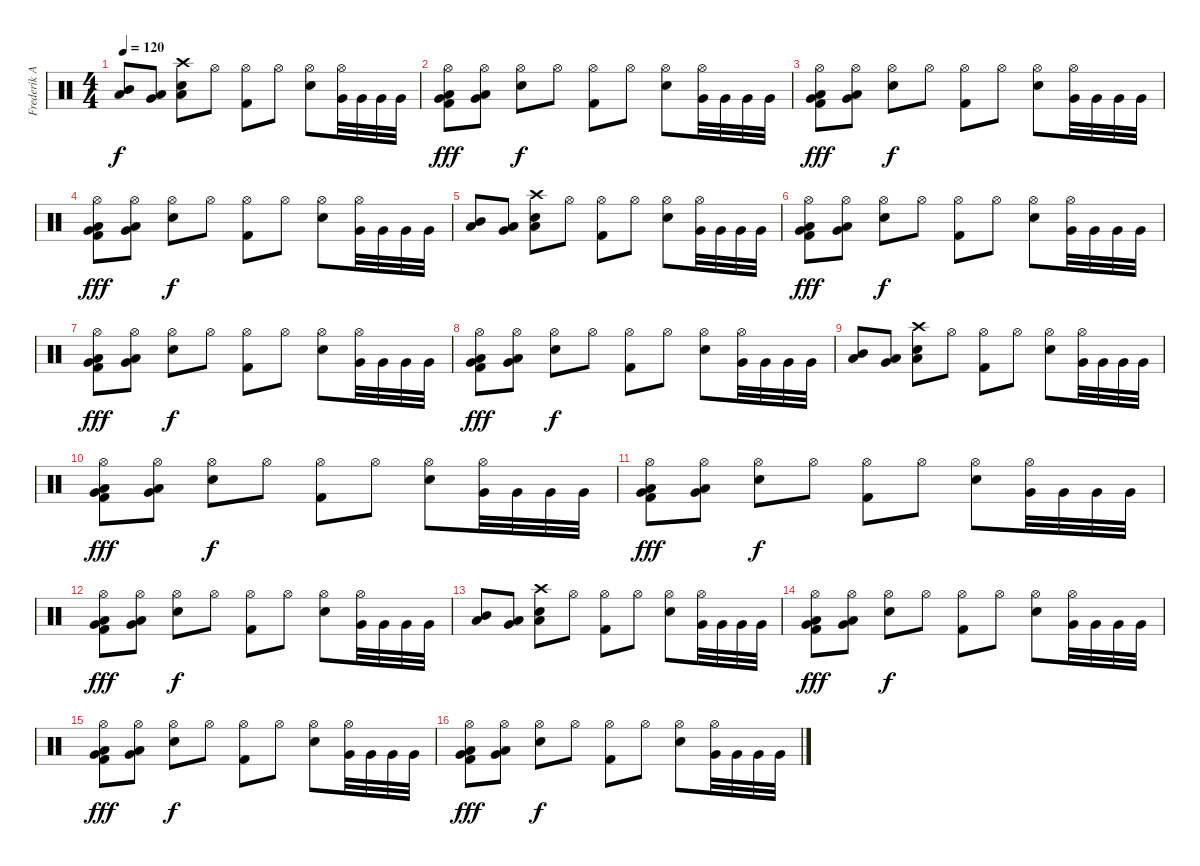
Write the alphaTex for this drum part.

\track ("Frederik Anderson" "Frederik A") {instrument percussion}
\staff {score}
\articulation defaults
\ts (4 4)
\tempo 120
\clef neutral
\ks c
("Mid Tom (hit)" "Low Tom (hit)").8{dy f} ("Low Tom (hit)" "Very Low Tom (hit)").8 ("Crash high (hit)" "Electric Snare (hit)" "Low Floor Tom (hit)").8 "Hi-Hat (open)".8 ("Hi-Hat (open)" "Kick (hit) 2").8 "Hi-Hat (open)".8 ("Hi-Hat (open)" "Electric Snare (hit)").8 ("Hi-Hat (open)" "Very Low Tom (hit)").32 "Very Low Tom (hit)".32 "Very Low Tom (hit)".32 "Very Low Tom (hit)".32 |
("Hi-Hat (open)" "Low Tom (hit)" "Very Low Tom (hit)" "Kick (hit) 2").8{dy fff} ("Hi-Hat (open)" "Very Low Tom (hit)" "Low Floor Tom (hit)").8 ("Hi-Hat (open)" "Electric Snare (hit)").8{dy f} "Hi-Hat (open)".8 ("Hi-Hat (open)" "Kick (hit) 2").8 "Hi-Hat (open)".8 ("Hi-Hat (open)" "Electric Snare (hit)").8 ("Hi-Hat (open)" "Very Low Tom (hit)").32 "Very Low Tom (hit)".32 "Very Low Tom (hit)".32 "Very Low Tom (hit)".32 |
("Hi-Hat (open)" "Low Tom (hit)" "Very Low Tom (hit)" "Kick (hit) 2").8{dy fff} ("Hi-Hat (open)" "Very Low Tom (hit)" "Low Floor Tom (hit)").8 ("Hi-Hat (open)" "Electric Snare (hit)").8{dy f} "Hi-Hat (open)".8 ("Hi-Hat (open)" "Kick (hit) 2").8 "Hi-Hat (open)".8 ("Hi-Hat (open)" "Electric Snare (hit)").8 ("Hi-Hat (open)" "Very Low Tom (hit)").32 "Very Low Tom (hit)".32 "Very Low Tom (hit)".32 "Very Low Tom (hit)".32 |
("Hi-Hat (open)" "Low Tom (hit)" "Very Low Tom (hit)" "Kick (hit) 2").8{dy fff} ("Hi-Hat (open)" "Very Low Tom (hit)" "Low Floor Tom (hit)").8 ("Hi-Hat (open)" "Electric Snare (hit)").8{dy f} "Hi-Hat (open)".8 ("Hi-Hat (open)" "Kick (hit) 2").8 "Hi-Hat (open)".8 ("Hi-Hat (open)" "Electric Snare (hit)").8 ("Hi-Hat (open)" "Very Low Tom (hit)").32 "Very Low Tom (hit)".32 "Very Low Tom (hit)".32 "Very Low Tom (hit)".32 |
("Mid Tom (hit)" "Low Tom (hit)").8{volume 11} ("Low Tom (hit)" "Very Low Tom (hit)").8 ("Crash high (hit)" "Electric Snare (hit)" "Low Floor Tom (hit)").8 "Hi-Hat (open)".8 ("Hi-Hat (open)" "Kick (hit) 2").8 "Hi-Hat (open)".8 ("Hi-Hat (open)" "Electric Snare (hit)").8 ("Hi-Hat (open)" "Very Low Tom (hit)").32 "Very Low Tom (hit)".32 "Very Low Tom (hit)".32 "Very Low Tom (hit)".32 |
("Hi-Hat (open)" "Low Tom (hit)" "Very Low Tom (hit)" "Kick (hit) 2").8{dy fff} ("Hi-Hat (open)" "Very Low Tom (hit)" "Low Floor Tom (hit)").8 ("Hi-Hat (open)" "Electric Snare (hit)").8{dy f} "Hi-Hat (open)".8 ("Hi-Hat (open)" "Kick (hit) 2").8 "Hi-Hat (open)".8 ("Hi-Hat (open)" "Electric Snare (hit)").8 ("Hi-Hat (open)" "Very Low Tom (hit)").32 "Very Low Tom (hit)".32 "Very Low Tom (hit)".32 "Very Low Tom (hit)".32 |
("Hi-Hat (open)" "Low Tom (hit)" "Very Low Tom (hit)" "Kick (hit) 2").8{dy fff} ("Hi-Hat (open)" "Very Low Tom (hit)" "Low Floor Tom (hit)").8 ("Hi-Hat (open)" "Electric Snare (hit)").8{dy f} "Hi-Hat (open)".8 ("Hi-Hat (open)" "Kick (hit) 2").8 "Hi-Hat (open)".8 ("Hi-Hat (open)" "Electric Snare (hit)").8 ("Hi-Hat (open)" "Very Low Tom (hit)").32 "Very Low Tom (hit)".32 "Very Low Tom (hit)".32 "Very Low Tom (hit)".32 |
("Hi-Hat (open)" "Low Tom (hit)" "Very Low Tom (hit)" "Kick (hit) 2").8{dy fff} ("Hi-Hat (open)" "Very Low Tom (hit)" "Low Floor Tom (hit)").8 ("Hi-Hat (open)" "Electric Snare (hit)").8{dy f} "Hi-Hat (open)".8 ("Hi-Hat (open)" "Kick (hit) 2").8 "Hi-Hat (open)".8 ("Hi-Hat (open)" "Electric Snare (hit)").8 ("Hi-Hat (open)" "Very Low Tom (hit)").32 "Very Low Tom (hit)".32 "Very Low Tom (hit)".32 "Very Low Tom (hit)".32 |
("Mid Tom (hit)" "Low Tom (hit)").8{volume 6} ("Low Tom (hit)" "Very Low Tom (hit)").8 ("Crash high (hit)" "Electric Snare (hit)" "Low Floor Tom (hit)").8 "Hi-Hat (open)".8 ("Hi-Hat (open)" "Kick (hit) 2").8 "Hi-Hat (open)".8 ("Hi-Hat (open)" "Electric Snare (hit)").8 ("Hi-Hat (open)" "Very Low Tom (hit)").32 "Very Low Tom (hit)".32 "Very Low Tom (hit)".32 "Very Low Tom (hit)".32 |
("Hi-Hat (open)" "Low Tom (hit)" "Very Low Tom (hit)" "Kick (hit) 2").8{dy fff} ("Hi-Hat (open)" "Very Low Tom (hit)" "Low Floor Tom (hit)").8 ("Hi-Hat (open)" "Electric Snare (hit)").8{dy f} "Hi-Hat (open)".8 ("Hi-Hat (open)" "Kick (hit) 2").8 "Hi-Hat (open)".8 ("Hi-Hat (open)" "Electric Snare (hit)").8 ("Hi-Hat (open)" "Very Low Tom (hit)").32 "Very Low Tom (hit)".32 "Very Low Tom (hit)".32 "Very Low Tom (hit)".32 |
("Hi-Hat (open)" "Low Tom (hit)" "Very Low Tom (hit)" "Kick (hit) 2").8{dy fff} ("Hi-Hat (open)" "Very Low Tom (hit)" "Low Floor Tom (hit)").8 ("Hi-Hat (open)" "Electric Snare (hit)").8{dy f} "Hi-Hat (open)".8 ("Hi-Hat (open)" "Kick (hit) 2").8 "Hi-Hat (open)".8 ("Hi-Hat (open)" "Electric Snare (hit)").8 ("Hi-Hat (open)" "Very Low Tom (hit)").32 "Very Low Tom (hit)".32 "Very Low Tom (hit)".32 "Very Low Tom (hit)".32 |
("Hi-Hat (open)" "Low Tom (hit)" "Very Low Tom (hit)" "Kick (hit) 2").8{dy fff} ("Hi-Hat (open)" "Very Low Tom (hit)" "Low Floor Tom (hit)").8 ("Hi-Hat (open)" "Electric Snare (hit)").8{dy f} "Hi-Hat (open)".8 ("Hi-Hat (open)" "Kick (hit) 2").8 "Hi-Hat (open)".8 ("Hi-Hat (open)" "Electric Snare (hit)").8 ("Hi-Hat (open)" "Very Low Tom (hit)").32 "Very Low Tom (hit)".32 "Very Low Tom (hit)".32 "Very Low Tom (hit)".32 |
("Mid Tom (hit)" "Low Tom (hit)").8{volume 0} ("Low Tom (hit)" "Very Low Tom (hit)").8 ("Crash high (hit)" "Electric Snare (hit)" "Low Floor Tom (hit)").8 "Hi-Hat (open)".8 ("Hi-Hat (open)" "Kick (hit) 2").8 "Hi-Hat (open)".8 ("Hi-Hat (open)" "Electric Snare (hit)").8 ("Hi-Hat (open)" "Very Low Tom (hit)").32 "Very Low Tom (hit)".32 "Very Low Tom (hit)".32 "Very Low Tom (hit)".32 |
("Hi-Hat (open)" "Low Tom (hit)" "Very Low Tom (hit)" "Kick (hit) 2").8{dy fff} ("Hi-Hat (open)" "Very Low Tom (hit)" "Low Floor Tom (hit)").8 ("Hi-Hat (open)" "Electric Snare (hit)").8{dy f} "Hi-Hat (open)".8 ("Hi-Hat (open)" "Kick (hit) 2").8 "Hi-Hat (open)".8 ("Hi-Hat (open)" "Electric Snare (hit)").8 ("Hi-Hat (open)" "Very Low Tom (hit)").32 "Very Low Tom (hit)".32 "Very Low Tom (hit)".32 "Very Low Tom (hit)".32 |
("Hi-Hat (open)" "Low Tom (hit)" "Very Low Tom (hit)" "Kick (hit) 2").8{dy fff} ("Hi-Hat (open)" "Very Low Tom (hit)" "Low Floor Tom (hit)").8 ("Hi-Hat (open)" "Electric Snare (hit)").8{dy f} "Hi-Hat (open)".8 ("Hi-Hat (open)" "Kick (hit) 2").8 "Hi-Hat (open)".8 ("Hi-Hat (open)" "Electric Snare (hit)").8 ("Hi-Hat (open)" "Very Low Tom (hit)").32 "Very Low Tom (hit)".32 "Very Low Tom (hit)".32 "Very Low Tom (hit)".32 |
("Hi-Hat (open)" "Low Tom (hit)" "Very Low Tom (hit)" "Kick (hit) 2").8{dy fff} ("Hi-Hat (open)" "Very Low Tom (hit)" "Low Floor Tom (hit)").8 ("Hi-Hat (open)" "Electric Snare (hit)").8{dy f} "Hi-Hat (open)".8 ("Hi-Hat (open)" "Kick (hit) 2").8 "Hi-Hat (open)".8 ("Hi-Hat (open)" "Electric Snare (hit)").8 ("Hi-Hat (open)" "Very Low Tom (hit)").32 "Very Low Tom (hit)".32 "Very Low Tom (hit)".32 "Very Low Tom (hit)".32
